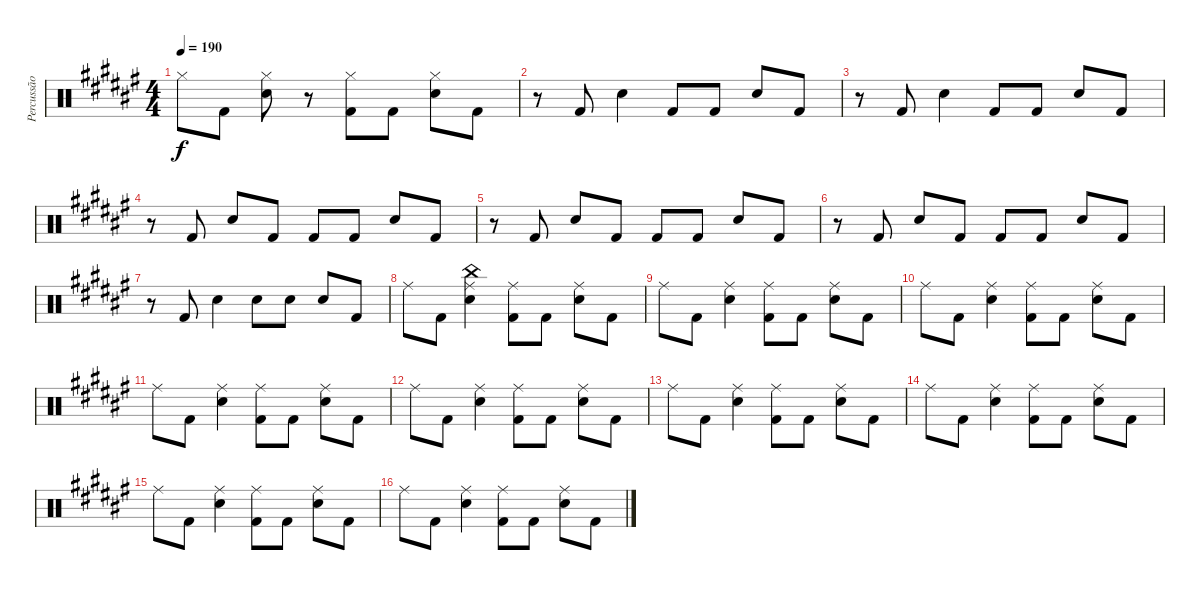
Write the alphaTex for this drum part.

\track ("Percussão" "Percussão") {instrument percussion}
\staff {score}
\articulation defaults
\ts (4 4)
\tempo 190
\clef neutral
\ks d#minor "Hi-Hat (closed)".8{dy f} "Kick (hit) 2".8
("Hi-Hat (closed)" "Snare (hit) 2").8 r.8 ("Hi-Hat (closed)" "Kick (hit) 2").8 "Kick (hit) 2".8 ("Hi-Hat (closed)" "Snare (hit) 2").8 "Kick (hit) 2".8 |
r.8 "Kick (hit) 2".8 "Electric Snare (hit)".4 "Kick (hit) 2".8 "Kick (hit) 2".8 "Electric Snare (hit)".8 "Kick (hit) 2".8 |
r.8 "Kick (hit) 2".8 "Electric Snare (hit)".4 "Kick (hit) 2".8 "Kick (hit) 2".8 "Electric Snare (hit)".8 "Kick (hit) 2".8 |
r.8 "Kick (hit) 2".8 "Electric Snare (hit)".8 "Kick (hit) 2".8 "Kick (hit) 2".8 "Kick (hit) 2".8 "Electric Snare (hit)".8 "Kick (hit) 2".8 |
r.8 "Kick (hit) 2".8 "Electric Snare (hit)".8 "Kick (hit) 2".8 "Kick (hit) 2".8 "Kick (hit) 2".8 "Electric Snare (hit)".8 "Kick (hit) 2".8 |
r.8 "Kick (hit) 2".8 "Electric Snare (hit)".8 "Kick (hit) 2".8 "Kick (hit) 2".8 "Kick (hit) 2".8 "Electric Snare (hit)".8 "Kick (hit) 2".8 |
r.8 "Kick (hit) 2".8 "Electric Snare (hit)".4 "Electric Snare (hit)".8 "Electric Snare (hit)".8 "Electric Snare (hit)".8 "Kick (hit) 2".8 |
"Ride (middle)".8 "Kick (hit) 2".8 ("Electric Snare (hit)" "China (hit)" "Ride (middle)").4 ("Kick (hit) 2" "Ride (middle)").8 "Kick (hit) 2".8 ("Electric Snare (hit)" "Ride (middle)").8 "Kick (hit) 2".8 |
"Ride (middle)".8 "Kick (hit) 2".8 ("Electric Snare (hit)" "Ride (middle)").4 ("Kick (hit) 2" "Ride (middle)").8 "Kick (hit) 2".8 ("Electric Snare (hit)" "Ride (middle)").8 "Kick (hit) 2".8 |
"Ride (middle)".8 "Kick (hit) 2".8 ("Electric Snare (hit)" "Ride (middle)").4 ("Kick (hit) 2" "Ride (middle)").8 "Kick (hit) 2".8 ("Electric Snare (hit)" "Ride (middle)").8 "Kick (hit) 2".8 |
"Ride (middle)".8 "Kick (hit) 2".8 ("Electric Snare (hit)" "Ride (middle)").4 ("Kick (hit) 2" "Ride (middle)").8 "Kick (hit) 2".8 ("Electric Snare (hit)" "Ride (middle)").8 "Kick (hit) 2".8 |
"Ride (middle)".8 "Kick (hit) 2".8 ("Electric Snare (hit)" "Ride (middle)").4 ("Kick (hit) 2" "Ride (middle)").8 "Kick (hit) 2".8 ("Electric Snare (hit)" "Ride (middle)").8 "Kick (hit) 2".8 |
"Ride (middle)".8 "Kick (hit) 2".8 ("Electric Snare (hit)" "Ride (middle)").4 ("Kick (hit) 2" "Ride (middle)").8 "Kick (hit) 2".8 ("Electric Snare (hit)" "Ride (middle)").8 "Kick (hit) 2".8 |
"Ride (middle)".8 "Kick (hit) 2".8 ("Electric Snare (hit)" "Ride (middle)").4 ("Kick (hit) 2" "Ride (middle)").8 "Kick (hit) 2".8 ("Electric Snare (hit)" "Ride (middle)").8 "Kick (hit) 2".8 |
"Ride (middle)".8 "Kick (hit) 2".8 ("Electric Snare (hit)" "Ride (middle)").4 ("Kick (hit) 2" "Ride (middle)").8 "Kick (hit) 2".8 ("Electric Snare (hit)" "Ride (middle)").8 "Kick (hit) 2".8 |
"Ride (middle)".8 "Kick (hit) 2".8 ("Electric Snare (hit)" "Ride (middle)").4 ("Kick (hit) 2" "Ride (middle)").8 "Kick (hit) 2".8 ("Electric Snare (hit)" "Ride (middle)").8 "Kick (hit) 2".8
